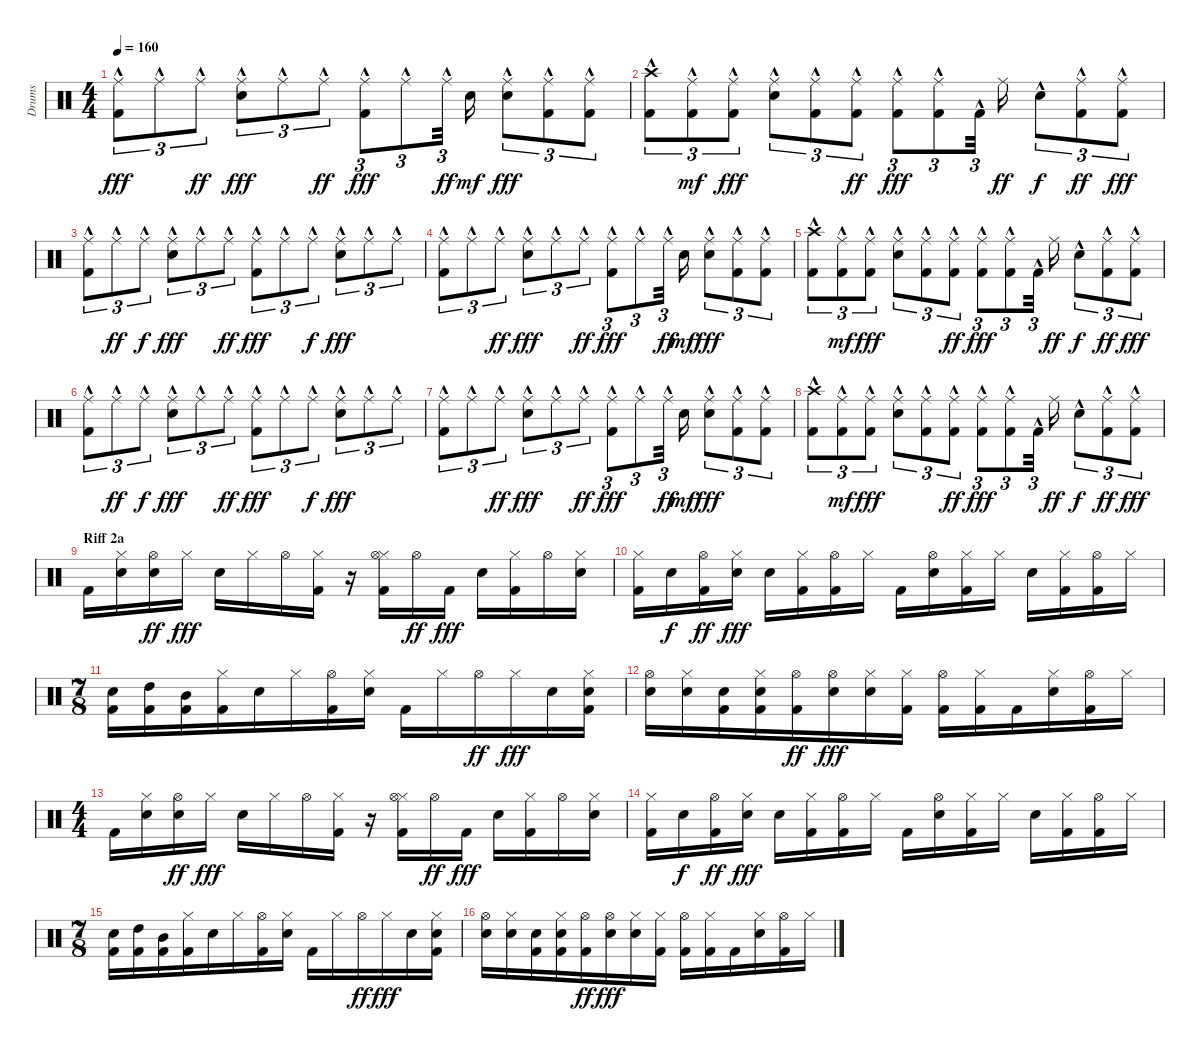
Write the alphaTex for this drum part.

\track ("Drums" "Drums") {instrument percussion}
\staff {score}
\articulation defaults
\ts (4 4)
\tempo 160
\clef neutral
\ks c
("Kick (hit) 2"{hac} "Ride (middle)"{hac}).8{tu (3 2) dy fff} "Ride (middle)"{hac}.8{tu (3 2)} "Ride (middle)"{hac}.8{tu (3 2) dy ff} ("Snare (hit) 2"{hac} "Ride (middle)"{hac}).8{tu (3 2) dy fff} "Ride (middle)"{hac}.8{tu (3 2)} "Ride (middle)"{hac}.8{tu (3 2) dy ff} ("Kick (hit) 2"{hac} "Ride (middle)"{hac}).8{tu (3 2) dy fff} "Ride (middle)"{hac}.8{tu (3 2)} "Ride (middle)"{hac}.32{tu (3 2) dy ff} "Snare (hit) 2".16{dy mf} ("Snare (hit) 2"{hac} "Ride (middle)"{hac}).8{tu (3 2) dy fff} ("Kick (hit) 2"{hac} "Ride (middle)"{hac}).8{tu (3 2)} ("Kick (hit) 2"{hac} "Ride (middle)"{hac}).8{tu (3 2)} |
("Kick (hit) 2"{hac} "Crash high (hit)"{hac}).8{tu (3 2)} ("Kick (hit) 2"{hac} "Ride (middle)"{hac}).8{tu (3 2) dy mf} ("Kick (hit) 2"{hac} "Ride (middle)"{hac}).8{tu (3 2) dy fff} ("Snare (hit) 2"{hac} "Ride (middle)"{hac}).8{tu (3 2)} ("Kick (hit) 2"{hac} "Ride (middle)"{hac}).8{tu (3 2)} ("Kick (hit) 2"{hac} "Ride (middle)"{hac}).8{tu (3 2) dy ff} ("Kick (hit) 2"{hac} "Ride (middle)"{hac}).8{tu (3 2) dy fff} ("Kick (hit) 2"{hac} "Ride (middle)"{hac}).8{tu (3 2)} "Kick (hit) 2"{hac}.32{tu (3 2)} "Ride (middle)".16{dy ff} "Snare (hit) 2"{hac}.8{tu (3 2) dy f} ("Kick (hit) 2"{hac} "Ride (middle)"{hac}).8{tu (3 2) dy ff} ("Kick (hit) 2"{hac} "Ride (middle)"{hac}).8{tu (3 2) dy fff} |
("Kick (hit) 2"{hac} "Ride (middle)"{hac}).8{tu (3 2)} "Ride (middle)"{hac}.8{tu (3 2) dy ff} "Ride (middle)"{hac}.8{tu (3 2) dy f} ("Snare (hit) 2"{hac} "Ride (middle)"{hac}).8{tu (3 2) dy fff} "Ride (middle)"{hac}.8{tu (3 2)} "Ride (middle)"{hac}.8{tu (3 2) dy ff} ("Kick (hit) 2"{hac} "Ride (middle)"{hac}).8{tu (3 2) dy fff} "Ride (middle)"{hac}.8{tu (3 2)} "Ride (middle)"{hac}.8{tu (3 2) dy f} ("Snare (hit) 2"{hac} "Ride (middle)"{hac}).8{tu (3 2) dy fff} "Ride (middle)"{hac}.8{tu (3 2)} "Ride (middle)"{hac}.8{tu (3 2)} |
("Kick (hit) 2"{hac} "Ride (middle)"{hac}).8{tu (3 2)} "Ride (middle)"{hac}.8{tu (3 2)} "Ride (middle)"{hac}.8{tu (3 2) dy ff} ("Snare (hit) 2"{hac} "Ride (middle)"{hac}).8{tu (3 2) dy fff} "Ride (middle)"{hac}.8{tu (3 2)} "Ride (middle)"{hac}.8{tu (3 2) dy ff} ("Kick (hit) 2"{hac} "Ride (middle)"{hac}).8{tu (3 2) dy fff} "Ride (middle)"{hac}.8{tu (3 2)} "Ride (middle)"{hac}.32{tu (3 2) dy ff} "Snare (hit) 2".16{dy mf} ("Snare (hit) 2"{hac} "Ride (middle)"{hac}).8{tu (3 2) dy fff} ("Kick (hit) 2"{hac} "Ride (middle)"{hac}).8{tu (3 2)} ("Kick (hit) 2"{hac} "Ride (middle)"{hac}).8{tu (3 2)} |
("Kick (hit) 2"{hac} "Crash high (hit)"{hac}).8{tu (3 2)} ("Kick (hit) 2"{hac} "Ride (middle)"{hac}).8{tu (3 2) dy mf} ("Kick (hit) 2"{hac} "Ride (middle)"{hac}).8{tu (3 2) dy fff} ("Snare (hit) 2"{hac} "Ride (middle)"{hac}).8{tu (3 2)} ("Kick (hit) 2"{hac} "Ride (middle)"{hac}).8{tu (3 2)} ("Kick (hit) 2"{hac} "Ride (middle)"{hac}).8{tu (3 2) dy ff} ("Kick (hit) 2"{hac} "Ride (middle)"{hac}).8{tu (3 2) dy fff} ("Kick (hit) 2"{hac} "Ride (middle)"{hac}).8{tu (3 2)} "Kick (hit) 2"{hac}.32{tu (3 2)} "Ride (middle)".16{dy ff} "Snare (hit) 2"{hac}.8{tu (3 2) dy f} ("Kick (hit) 2"{hac} "Ride (middle)"{hac}).8{tu (3 2) dy ff} ("Kick (hit) 2"{hac} "Ride (middle)"{hac}).8{tu (3 2) dy fff} |
("Kick (hit) 2"{hac} "Ride (middle)"{hac}).8{tu (3 2)} "Ride (middle)"{hac}.8{tu (3 2) dy ff} "Ride (middle)"{hac}.8{tu (3 2) dy f} ("Snare (hit) 2"{hac} "Ride (middle)"{hac}).8{tu (3 2) dy fff} "Ride (middle)"{hac}.8{tu (3 2)} "Ride (middle)"{hac}.8{tu (3 2) dy ff} ("Kick (hit) 2"{hac} "Ride (middle)"{hac}).8{tu (3 2) dy fff} "Ride (middle)"{hac}.8{tu (3 2)} "Ride (middle)"{hac}.8{tu (3 2) dy f} ("Snare (hit) 2"{hac} "Ride (middle)"{hac}).8{tu (3 2) dy fff} "Ride (middle)"{hac}.8{tu (3 2)} "Ride (middle)"{hac}.8{tu (3 2)} |
("Kick (hit) 2"{hac} "Ride (middle)"{hac}).8{tu (3 2)} "Ride (middle)"{hac}.8{tu (3 2)} "Ride (middle)"{hac}.8{tu (3 2) dy ff} ("Snare (hit) 2"{hac} "Ride (middle)"{hac}).8{tu (3 2) dy fff} "Ride (middle)"{hac}.8{tu (3 2)} "Ride (middle)"{hac}.8{tu (3 2) dy ff} ("Kick (hit) 2"{hac} "Ride (middle)"{hac}).8{tu (3 2) dy fff} "Ride (middle)"{hac}.8{tu (3 2)} "Ride (middle)"{hac}.32{tu (3 2) dy ff} "Snare (hit) 2".16{dy mf} ("Snare (hit) 2"{hac} "Ride (middle)"{hac}).8{tu (3 2) dy fff} ("Kick (hit) 2"{hac} "Ride (middle)"{hac}).8{tu (3 2)} ("Kick (hit) 2"{hac} "Ride (middle)"{hac}).8{tu (3 2)} |
("Kick (hit) 2"{hac} "Crash high (hit)"{hac}).8{tu (3 2)} ("Kick (hit) 2"{hac} "Ride (middle)"{hac}).8{tu (3 2) dy mf} ("Kick (hit) 2"{hac} "Ride (middle)"{hac}).8{tu (3 2) dy fff} ("Snare (hit) 2"{hac} "Ride (middle)"{hac}).8{tu (3 2)} ("Kick (hit) 2"{hac} "Ride (middle)"{hac}).8{tu (3 2)} ("Kick (hit) 2"{hac} "Ride (middle)"{hac}).8{tu (3 2) dy ff} ("Kick (hit) 2"{hac} "Ride (middle)"{hac}).8{tu (3 2) dy fff} ("Kick (hit) 2"{hac} "Ride (middle)"{hac}).8{tu (3 2)} "Kick (hit) 2"{hac}.32{tu (3 2)} "Ride (middle)".16{dy ff} "Snare (hit) 2"{hac}.8{tu (3 2) dy f} ("Kick (hit) 2"{hac} "Ride (middle)"{hac}).8{tu (3 2) dy ff} ("Kick (hit) 2"{hac} "Ride (middle)"{hac}).8{tu (3 2) dy fff} |
\section ("" "Riff 2a")
"Kick (hit) 2".16 ("Snare (hit) 2" "Hi-Hat (closed)").16 ("Snare (hit) 2" "Hi-Hat (open)").16{dy ff} "Hi-Hat (closed)".16{dy fff} "Snare (hit) 2".16 "Hi-Hat (closed)".16 "Hi-Hat (open)".16 ("Kick (hit) 2" "Hi-Hat (closed)").16 r.16 ("Kick (hit) 2" "Hi-Hat (closed)" "Hi-Hat (open)").16 "Hi-Hat (open)".16{dy ff} "Kick (hit) 2".16{dy fff} "Snare (hit) 2".16 ("Kick (hit) 2" "Hi-Hat (closed)").16 "Hi-Hat (open)".16 ("Snare (hit) 2" "Hi-Hat (closed)").16 |
("Kick (hit) 2" "Hi-Hat (closed)").16 "Snare (hit) 2".16{dy f} ("Kick (hit) 2" "Hi-Hat (open)").16{dy ff} ("Snare (hit) 2" "Hi-Hat (closed)").16{dy fff} "Snare (hit) 2".16 ("Kick (hit) 2" "Hi-Hat (closed)").16 ("Kick (hit) 2" "Hi-Hat (open)").16 "Hi-Hat (closed)".16 "Kick (hit) 2".16 ("Snare (hit) 2" "Hi-Hat (open)").16 ("Kick (hit) 2" "Hi-Hat (closed)").16 "Hi-Hat (closed)".16 "Snare (hit) 2".16 ("Kick (hit) 2" "Hi-Hat (closed)").16 ("Kick (hit) 2" "Hi-Hat (open)").16 "Hi-Hat (closed)".16 |
\ts (7 8)
("Kick (hit) 2" "Snare (hit) 2").16 ("Kick (hit) 2" "High Tom (hit)").16 ("Kick (hit) 2" "Mid Tom (hit)").16 ("Kick (hit) 2" "Hi-Hat (closed)").16 "Snare (hit) 2".16 "Hi-Hat (closed)".16 ("Kick (hit) 2" "Hi-Hat (open)").16 ("Snare (hit) 2" "Hi-Hat (closed)").16 "Kick (hit) 2".16 "Hi-Hat (closed)".16 "Hi-Hat (open)".16{dy ff} "Hi-Hat (closed)".16{dy fff} "Snare (hit) 2".16 ("Kick (hit) 2" "Snare (hit) 2" "Hi-Hat (closed)").16 |
("Snare (hit) 2" "Hi-Hat (open)").16 ("Snare (hit) 2" "Hi-Hat (closed)").16 ("Kick (hit) 2" "Snare (hit) 2").16 ("Kick (hit) 2" "Snare (hit) 2" "Hi-Hat (closed)").16 ("Kick (hit) 2" "Hi-Hat (open)").16{dy ff} ("Snare (hit) 2" "Hi-Hat (open)").16{dy fff} ("Snare (hit) 2" "Hi-Hat (closed)").16 ("Kick (hit) 2" "Hi-Hat (closed)").16 ("Kick (hit) 2" "Hi-Hat (open)").16 ("Kick (hit) 2" "Hi-Hat (closed)").16 "Kick (hit) 2".16 ("Snare (hit) 2" "Hi-Hat (closed)").16 ("Kick (hit) 2" "Hi-Hat (open)").16 "Hi-Hat (closed)".16 |
\ts (4 4)
"Kick (hit) 2".16 ("Snare (hit) 2" "Hi-Hat (closed)").16 ("Snare (hit) 2" "Hi-Hat (open)").16{dy ff} "Hi-Hat (closed)".16{dy fff} "Snare (hit) 2".16 "Hi-Hat (closed)".16 "Hi-Hat (open)".16 ("Kick (hit) 2" "Hi-Hat (closed)").16 r.16 ("Kick (hit) 2" "Hi-Hat (closed)" "Hi-Hat (open)").16 "Hi-Hat (open)".16{dy ff} "Kick (hit) 2".16{dy fff} "Snare (hit) 2".16 ("Kick (hit) 2" "Hi-Hat (closed)").16 "Hi-Hat (open)".16 ("Snare (hit) 2" "Hi-Hat (closed)").16 |
("Kick (hit) 2" "Hi-Hat (closed)").16 "Snare (hit) 2".16{dy f} ("Kick (hit) 2" "Hi-Hat (open)").16{dy ff} ("Snare (hit) 2" "Hi-Hat (closed)").16{dy fff} "Snare (hit) 2".16 ("Kick (hit) 2" "Hi-Hat (closed)").16 ("Kick (hit) 2" "Hi-Hat (open)").16 "Hi-Hat (closed)".16 "Kick (hit) 2".16 ("Snare (hit) 2" "Hi-Hat (open)").16 ("Kick (hit) 2" "Hi-Hat (closed)").16 "Hi-Hat (closed)".16 "Snare (hit) 2".16 ("Kick (hit) 2" "Hi-Hat (closed)").16 ("Kick (hit) 2" "Hi-Hat (open)").16 "Hi-Hat (closed)".16 |
\ts (7 8)
("Kick (hit) 2" "Snare (hit) 2").16 ("Kick (hit) 2" "High Tom (hit)").16 ("Kick (hit) 2" "Mid Tom (hit)").16 ("Kick (hit) 2" "Hi-Hat (closed)").16 "Snare (hit) 2".16 "Hi-Hat (closed)".16 ("Kick (hit) 2" "Hi-Hat (open)").16 ("Snare (hit) 2" "Hi-Hat (closed)").16 "Kick (hit) 2".16 "Hi-Hat (closed)".16 "Hi-Hat (open)".16{dy ff} "Hi-Hat (closed)".16{dy fff} "Snare (hit) 2".16 ("Kick (hit) 2" "Snare (hit) 2" "Hi-Hat (closed)").16 |
("Snare (hit) 2" "Hi-Hat (open)").16 ("Snare (hit) 2" "Hi-Hat (closed)").16 ("Kick (hit) 2" "Snare (hit) 2").16 ("Kick (hit) 2" "Snare (hit) 2" "Hi-Hat (closed)").16 ("Kick (hit) 2" "Hi-Hat (open)").16{dy ff} ("Snare (hit) 2" "Hi-Hat (open)").16{dy fff} ("Snare (hit) 2" "Hi-Hat (closed)").16 ("Kick (hit) 2" "Hi-Hat (closed)").16 ("Kick (hit) 2" "Hi-Hat (open)").16 ("Kick (hit) 2" "Hi-Hat (closed)").16 "Kick (hit) 2".16 ("Snare (hit) 2" "Hi-Hat (closed)").16 ("Kick (hit) 2" "Hi-Hat (open)").16 "Hi-Hat (closed)".16
